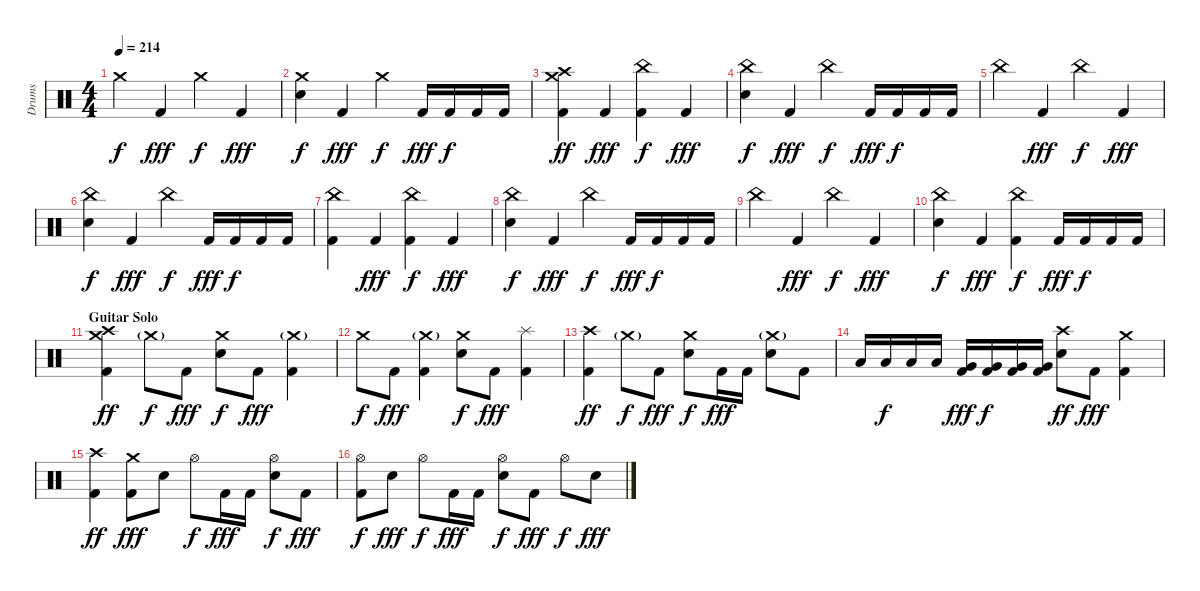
\track ("Drums" "Drums") {instrument percussion}
\staff {score}
\articulation defaults
\ts (4 4)
\tempo 214
\clef neutral
\ks c "Crash medium (hit)".4{dy f} "Kick (hit) 2".4{dy fff} "Crash medium (hit)".4{dy f} "Kick (hit) 2".4{dy fff}
|
("Crash medium (hit)" "Snare (hit) 2").4{dy f} "Kick (hit) 2".4{dy fff} "Crash medium (hit)".4{dy f} "Kick (hit) 2".16{dy fff} "Kick (hit) 2".16{dy f} "Kick (hit) 2".16 "Kick (hit) 2".16 |
("Crash medium (hit)" "Crash high (hit)" "Kick (hit) 2").4{dy ff} "Kick (hit) 2".4{dy fff} ("China (hit)" "Kick (hit) 2").4{dy f} "Kick (hit) 2".4{dy fff} |
("China (hit)" "Snare (hit) 2").4{dy f} "Kick (hit) 2".4{dy fff} "China (hit)".4{dy f} "Kick (hit) 2".16{dy fff} "Kick (hit) 2".16{dy f} "Kick (hit) 2".16 "Kick (hit) 2".16 |
"China (hit)".4 "Kick (hit) 2".4{dy fff} "China (hit)".4{dy f} "Kick (hit) 2".4{dy fff} |
("China (hit)" "Snare (hit) 2").4{dy f} "Kick (hit) 2".4{dy fff} "China (hit)".4{dy f} "Kick (hit) 2".16{dy fff} "Kick (hit) 2".16{dy f} "Kick (hit) 2".16 "Kick (hit) 2".16 |
("China (hit)" "Kick (hit) 2").4 "Kick (hit) 2".4{dy fff} ("China (hit)" "Kick (hit) 2").4{dy f} "Kick (hit) 2".4{dy fff} |
("China (hit)" "Snare (hit) 2").4{dy f} "Kick (hit) 2".4{dy fff} "China (hit)".4{dy f} "Kick (hit) 2".16{dy fff} "Kick (hit) 2".16{dy f} "Kick (hit) 2".16 "Kick (hit) 2".16 |
"China (hit)".4 "Kick (hit) 2".4{dy fff} "China (hit)".4{dy f} "Kick (hit) 2".4{dy fff} |
("China (hit)" "Snare (hit) 2").4{dy f} "Kick (hit) 2".4{dy fff} ("China (hit)" "Kick (hit) 2").4{dy f} "Kick (hit) 2".16{dy fff} "Kick (hit) 2".16{dy f} "Kick (hit) 2".16 "Kick (hit) 2".16 |
\section ("" "Guitar Solo")
("Crash medium (hit)" "Crash high (hit)" "Kick (hit) 2").4{dy ff} "Crash medium (hit)"{g}.8{dy f} "Kick (hit) 2".8{dy fff} ("Crash medium (hit)" "Snare (hit) 2").8{dy f} "Kick (hit) 2".8{dy fff} ("Crash medium (hit)"{g} "Kick (hit) 2").4 |
"Crash medium (hit)".8{dy f} "Kick (hit) 2".8{dy fff} ("Crash medium (hit)"{g} "Kick (hit) 2").4 ("Crash medium (hit)" "Snare (hit) 2").8{dy f} "Kick (hit) 2".8{dy fff} ("Splash (hit)" "Kick (hit) 2").4 |
("Crash high (hit)" "Kick (hit) 2").4{dy ff} "Crash medium (hit)"{g}.8{dy f} "Kick (hit) 2".8{dy fff} ("Crash medium (hit)" "Snare (hit) 2").8{dy f} "Kick (hit) 2".16{dy fff} "Kick (hit) 2".16 ("Crash medium (hit)"{g} "Snare (hit) 2").8 "Kick (hit) 2".8 |
"Low Tom (hit)".16 "Low Tom (hit)".16{dy f} "Low Tom (hit)".16 "Low Tom (hit)".16 ("Very Low Tom (hit)" "Kick (hit) 2").16{dy fff} ("Very Low Tom (hit)" "Kick (hit) 2").16{dy f} ("Very Low Tom (hit)" "Kick (hit) 2").16 ("Very Low Tom (hit)" "Kick (hit) 2").16 ("Crash high (hit)" "Snare (hit) 2").8{dy ff} "Kick (hit) 2".8{dy fff} ("Crash medium (hit)" "Kick (hit) 2").4 |
("Crash high (hit)" "Kick (hit) 2").4{dy ff} ("Crash medium (hit)" "Kick (hit) 2").8{dy fff} "Snare (hit) 2".8 "Hi-Hat (open)".8{dy f} "Kick (hit) 2".16{dy fff} "Kick (hit) 2".16 ("Hi-Hat (open)" "Snare (hit) 2").8{dy f} "Kick (hit) 2".8{dy fff} |
("Hi-Hat (open)" "Kick (hit) 2").8{dy f} "Snare (hit) 2".8{dy fff} "Hi-Hat (open)".8{dy f} "Kick (hit) 2".16{dy fff} "Kick (hit) 2".16 ("Hi-Hat (open)" "Snare (hit) 2").8{dy f} "Kick (hit) 2".8{dy fff} "Hi-Hat (open)".8{dy f} "Snare (hit) 2".8{dy fff}
